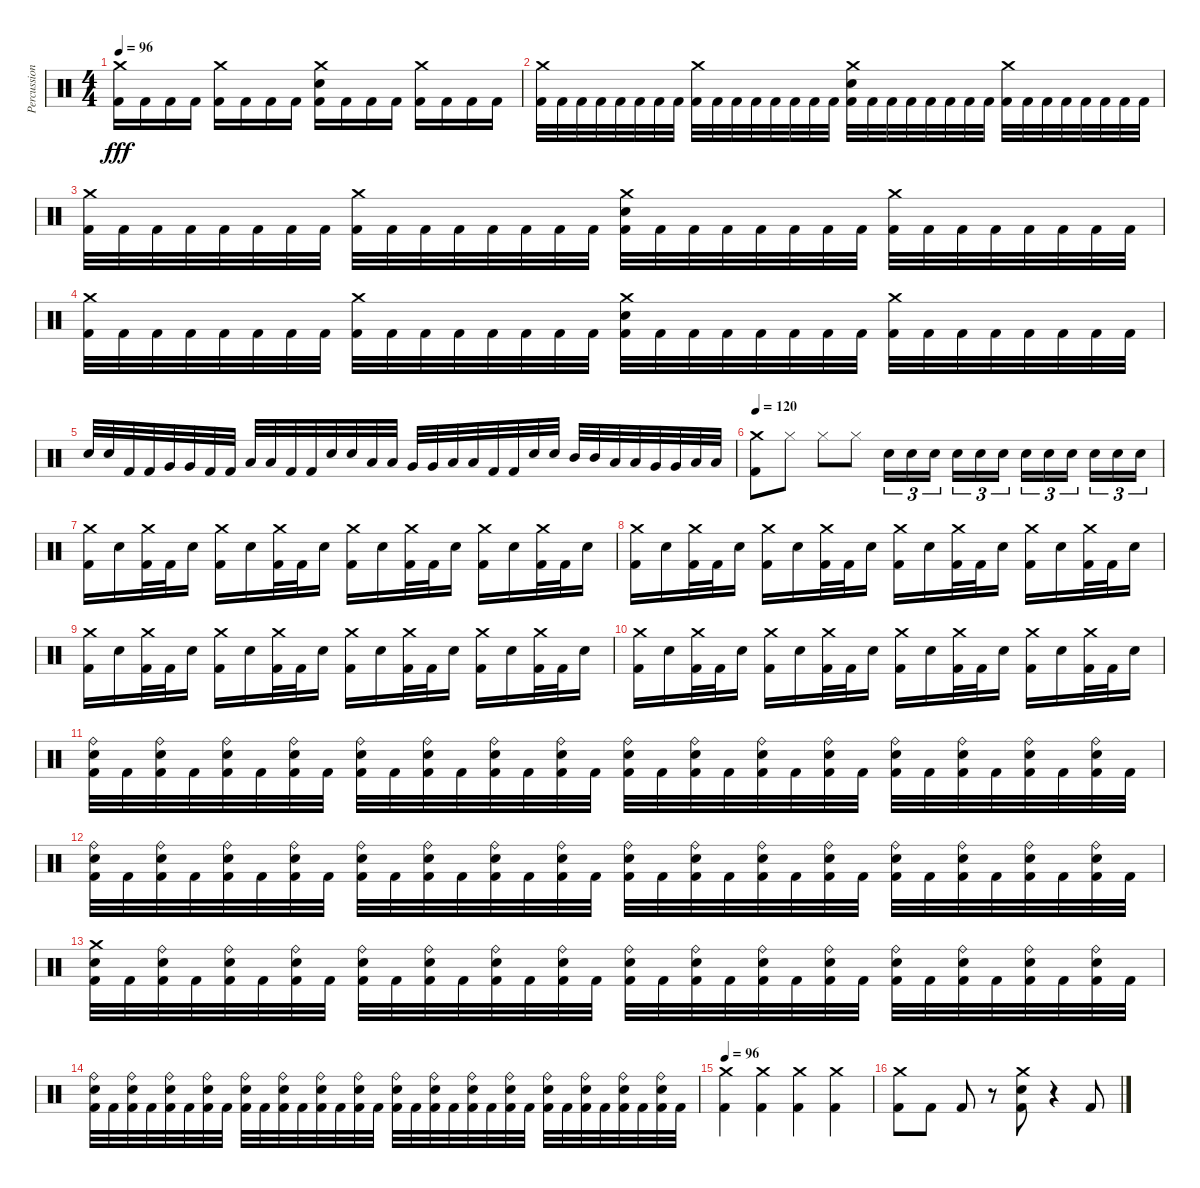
\track ("Percussion" "Percussion") {instrument percussion}
\staff {score}
\articulation defaults
\ts (4 4)
\tempo 96
\clef neutral
\ks c
("Crash medium (hit)" "Kick (hit) 2").16{dy fff} "Kick (hit) 2".16 "Kick (hit) 2".16 "Kick (hit) 2".16 ("Crash medium (hit)" "Kick (hit) 2").16 "Kick (hit) 2".16 "Kick (hit) 2".16 "Kick (hit) 2".16 ("Crash medium (hit)" "Electric Snare (hit)" "Kick (hit) 2").16 "Kick (hit) 2".16 "Kick (hit) 2".16 "Kick (hit) 2".16 ("Crash medium (hit)" "Kick (hit) 2").16 "Kick (hit) 2".16 "Kick (hit) 2".16 "Kick (hit) 2".16 |
("Crash medium (hit)" "Kick (hit) 2").32 "Kick (hit) 2".32 "Kick (hit) 2".32 "Kick (hit) 2".32 "Kick (hit) 2".32 "Kick (hit) 2".32 "Kick (hit) 2".32 "Kick (hit) 2".32 ("Crash medium (hit)" "Kick (hit) 2").32 "Kick (hit) 2".32 "Kick (hit) 2".32 "Kick (hit) 2".32 "Kick (hit) 2".32 "Kick (hit) 2".32 "Kick (hit) 2".32 "Kick (hit) 2".32 ("Crash medium (hit)" "Electric Snare (hit)" "Kick (hit) 2").32 "Kick (hit) 2".32 "Kick (hit) 2".32 "Kick (hit) 2".32 "Kick (hit) 2".32 "Kick (hit) 2".32 "Kick (hit) 2".32 "Kick (hit) 2".32 ("Crash medium (hit)" "Kick (hit) 2").32 "Kick (hit) 2".32 "Kick (hit) 2".32 "Kick (hit) 2".32 "Kick (hit) 2".32 "Kick (hit) 2".32 "Kick (hit) 2".32 "Kick (hit) 2".32 |
("Crash medium (hit)" "Kick (hit) 2").32 "Kick (hit) 2".32 "Kick (hit) 2".32 "Kick (hit) 2".32 "Kick (hit) 2".32 "Kick (hit) 2".32 "Kick (hit) 2".32 "Kick (hit) 2".32 ("Crash medium (hit)" "Kick (hit) 2").32 "Kick (hit) 2".32 "Kick (hit) 2".32 "Kick (hit) 2".32 "Kick (hit) 2".32 "Kick (hit) 2".32 "Kick (hit) 2".32 "Kick (hit) 2".32 ("Crash medium (hit)" "Electric Snare (hit)" "Kick (hit) 2").32 "Kick (hit) 2".32 "Kick (hit) 2".32 "Kick (hit) 2".32 "Kick (hit) 2".32 "Kick (hit) 2".32 "Kick (hit) 2".32 "Kick (hit) 2".32 ("Crash medium (hit)" "Kick (hit) 2").32 "Kick (hit) 2".32 "Kick (hit) 2".32 "Kick (hit) 2".32 "Kick (hit) 2".32 "Kick (hit) 2".32 "Kick (hit) 2".32 "Kick (hit) 2".32 |
("Crash medium (hit)" "Kick (hit) 2").32 "Kick (hit) 2".32 "Kick (hit) 2".32 "Kick (hit) 2".32 "Kick (hit) 2".32 "Kick (hit) 2".32 "Kick (hit) 2".32 "Kick (hit) 2".32 ("Crash medium (hit)" "Kick (hit) 2").32 "Kick (hit) 2".32 "Kick (hit) 2".32 "Kick (hit) 2".32 "Kick (hit) 2".32 "Kick (hit) 2".32 "Kick (hit) 2".32 "Kick (hit) 2".32 ("Crash medium (hit)" "Electric Snare (hit)" "Kick (hit) 2").32 "Kick (hit) 2".32 "Kick (hit) 2".32 "Kick (hit) 2".32 "Kick (hit) 2".32 "Kick (hit) 2".32 "Kick (hit) 2".32 "Kick (hit) 2".32 ("Crash medium (hit)" "Kick (hit) 2").32 "Kick (hit) 2".32 "Kick (hit) 2".32 "Kick (hit) 2".32 "Kick (hit) 2".32 "Kick (hit) 2".32 "Kick (hit) 2".32 "Kick (hit) 2".32 |
"Electric Snare (hit)".32 "Electric Snare (hit)".32 "Kick (hit) 2".32 "Kick (hit) 2".32 "Very Low Tom (hit)".32 "Very Low Tom (hit)".32 "Kick (hit) 2".32 "Kick (hit) 2".32 "Low Floor Tom (hit)".32 "Low Floor Tom (hit)".32 "Kick (hit) 2".32 "Kick (hit) 2".32 "Electric Snare (hit)".32 "Electric Snare (hit)".32 "Low Tom (hit)".32 "Low Tom (hit)".32 "Very Low Tom (hit)".32 "Very Low Tom (hit)".32 "Low Floor Tom (hit)".32 "Low Floor Tom (hit)".32 "Kick (hit) 2".32 "Kick (hit) 2".32 "Electric Snare (hit)".32 "Electric Snare (hit)".32 "Mid Tom (hit)".32 "Mid Tom (hit)".32 "Low Tom (hit)".32 "Low Tom (hit)".32 "Very Low Tom (hit)".32 "Very Low Tom (hit)".32 "Low Floor Tom (hit)".32 "Low Floor Tom (hit)".32 |
\tempo 120
("Crash medium (hit)" "Kick (hit) 2").8 "Hi-Hat (closed)".8 "Hi-Hat (closed)".8 "Hi-Hat (closed)".8 "Electric Snare (hit)".16{tu (3 2)} "Electric Snare (hit)".16{tu (3 2)} "Electric Snare (hit)".16{tu (3 2) beam splitsecondary} "Electric Snare (hit)".16{tu (3 2)} "Electric Snare (hit)".16{tu (3 2)} "Electric Snare (hit)".16{tu (3 2)} "Electric Snare (hit)".16{tu (3 2)} "Electric Snare (hit)".16{tu (3 2)} "Electric Snare (hit)".16{tu (3 2) beam splitsecondary} "Electric Snare (hit)".16{tu (3 2)} "Electric Snare (hit)".16{tu (3 2)} "Electric Snare (hit)".16{tu (3 2)} |
("Crash medium (hit)" "Kick (hit) 2").16 "Electric Snare (hit)".16 ("Crash medium (hit)" "Kick (hit) 2").32 "Kick (hit) 2".32 "Electric Snare (hit)".16 ("Crash medium (hit)" "Kick (hit) 2").16 "Electric Snare (hit)".16 ("Crash medium (hit)" "Kick (hit) 2").32 "Kick (hit) 2".32 "Electric Snare (hit)".16 ("Crash medium (hit)" "Kick (hit) 2").16 "Electric Snare (hit)".16 ("Crash medium (hit)" "Kick (hit) 2").32 "Kick (hit) 2".32 "Electric Snare (hit)".16 ("Crash medium (hit)" "Kick (hit) 2").16 "Electric Snare (hit)".16 ("Crash medium (hit)" "Kick (hit) 2").32 "Kick (hit) 2".32 "Electric Snare (hit)".16 |
("Crash medium (hit)" "Kick (hit) 2").16 "Electric Snare (hit)".16 ("Crash medium (hit)" "Kick (hit) 2").32 "Kick (hit) 2".32 "Electric Snare (hit)".16 ("Crash medium (hit)" "Kick (hit) 2").16 "Electric Snare (hit)".16 ("Crash medium (hit)" "Kick (hit) 2").32 "Kick (hit) 2".32 "Electric Snare (hit)".16 ("Crash medium (hit)" "Kick (hit) 2").16 "Electric Snare (hit)".16 ("Crash medium (hit)" "Kick (hit) 2").32 "Kick (hit) 2".32 "Electric Snare (hit)".16 ("Crash medium (hit)" "Kick (hit) 2").16 "Electric Snare (hit)".16 ("Crash medium (hit)" "Kick (hit) 2").32 "Kick (hit) 2".32 "Electric Snare (hit)".16 |
("Crash medium (hit)" "Kick (hit) 2").16 "Electric Snare (hit)".16 ("Crash medium (hit)" "Kick (hit) 2").32 "Kick (hit) 2".32 "Electric Snare (hit)".16 ("Crash medium (hit)" "Kick (hit) 2").16 "Electric Snare (hit)".16 ("Crash medium (hit)" "Kick (hit) 2").32 "Kick (hit) 2".32 "Electric Snare (hit)".16 ("Crash medium (hit)" "Kick (hit) 2").16 "Electric Snare (hit)".16 ("Crash medium (hit)" "Kick (hit) 2").32 "Kick (hit) 2".32 "Electric Snare (hit)".16 ("Crash medium (hit)" "Kick (hit) 2").16 "Electric Snare (hit)".16 ("Crash medium (hit)" "Kick (hit) 2").32 "Kick (hit) 2".32 "Electric Snare (hit)".16 |
("Crash medium (hit)" "Kick (hit) 2").16 "Electric Snare (hit)".16 ("Crash medium (hit)" "Kick (hit) 2").32 "Kick (hit) 2".32 "Electric Snare (hit)".16 ("Crash medium (hit)" "Kick (hit) 2").16 "Electric Snare (hit)".16 ("Crash medium (hit)" "Kick (hit) 2").32 "Kick (hit) 2".32 "Electric Snare (hit)".16 ("Crash medium (hit)" "Kick (hit) 2").16 "Electric Snare (hit)".16 ("Crash medium (hit)" "Kick (hit) 2").32 "Kick (hit) 2".32 "Electric Snare (hit)".16 ("Crash medium (hit)" "Kick (hit) 2").16 "Electric Snare (hit)".16 ("Crash medium (hit)" "Kick (hit) 2").32 "Kick (hit) 2".32 "Electric Snare (hit)".16 |
("Ride (bell)" "Electric Snare (hit)" "Kick (hit) 2").32 "Kick (hit) 2".32 ("Ride (bell)" "Electric Snare (hit)" "Kick (hit) 2").32 "Kick (hit) 2".32 ("Ride (bell)" "Electric Snare (hit)" "Kick (hit) 2").32 "Kick (hit) 2".32 ("Ride (bell)" "Electric Snare (hit)" "Kick (hit) 2").32 "Kick (hit) 2".32 ("Ride (bell)" "Electric Snare (hit)" "Kick (hit) 2").32 "Kick (hit) 2".32 ("Ride (bell)" "Electric Snare (hit)" "Kick (hit) 2").32 "Kick (hit) 2".32 ("Ride (bell)" "Electric Snare (hit)" "Kick (hit) 2").32 "Kick (hit) 2".32 ("Ride (bell)" "Electric Snare (hit)" "Kick (hit) 2").32 "Kick (hit) 2".32 ("Ride (bell)" "Electric Snare (hit)" "Kick (hit) 2").32 "Kick (hit) 2".32 ("Ride (bell)" "Electric Snare (hit)" "Kick (hit) 2").32 "Kick (hit) 2".32 ("Ride (bell)" "Electric Snare (hit)" "Kick (hit) 2").32 "Kick (hit) 2".32 ("Ride (bell)" "Electric Snare (hit)" "Kick (hit) 2").32 "Kick (hit) 2".32 ("Ride (bell)" "Electric Snare (hit)" "Kick (hit) 2").32 "Kick (hit) 2".32 ("Ride (bell)" "Electric Snare (hit)" "Kick (hit) 2").32 "Kick (hit) 2".32 ("Ride (bell)" "Electric Snare (hit)" "Kick (hit) 2").32 "Kick (hit) 2".32 ("Ride (bell)" "Electric Snare (hit)" "Kick (hit) 2").32 "Kick (hit) 2".32 |
("Ride (bell)" "Electric Snare (hit)" "Kick (hit) 2").32 "Kick (hit) 2".32 ("Ride (bell)" "Electric Snare (hit)" "Kick (hit) 2").32 "Kick (hit) 2".32 ("Ride (bell)" "Electric Snare (hit)" "Kick (hit) 2").32 "Kick (hit) 2".32 ("Ride (bell)" "Electric Snare (hit)" "Kick (hit) 2").32 "Kick (hit) 2".32 ("Ride (bell)" "Electric Snare (hit)" "Kick (hit) 2").32 "Kick (hit) 2".32 ("Ride (bell)" "Electric Snare (hit)" "Kick (hit) 2").32 "Kick (hit) 2".32 ("Ride (bell)" "Electric Snare (hit)" "Kick (hit) 2").32 "Kick (hit) 2".32 ("Ride (bell)" "Electric Snare (hit)" "Kick (hit) 2").32 "Kick (hit) 2".32 ("Ride (bell)" "Electric Snare (hit)" "Kick (hit) 2").32 "Kick (hit) 2".32 ("Ride (bell)" "Electric Snare (hit)" "Kick (hit) 2").32 "Kick (hit) 2".32 ("Ride (bell)" "Electric Snare (hit)" "Kick (hit) 2").32 "Kick (hit) 2".32 ("Ride (bell)" "Electric Snare (hit)" "Kick (hit) 2").32 "Kick (hit) 2".32 ("Ride (bell)" "Electric Snare (hit)" "Kick (hit) 2").32 "Kick (hit) 2".32 ("Ride (bell)" "Electric Snare (hit)" "Kick (hit) 2").32 "Kick (hit) 2".32 ("Ride (bell)" "Electric Snare (hit)" "Kick (hit) 2").32 "Kick (hit) 2".32 ("Ride (bell)" "Electric Snare (hit)" "Kick (hit) 2").32 "Kick (hit) 2".32 |
("Crash medium (hit)" "Electric Snare (hit)" "Kick (hit) 2").32 "Kick (hit) 2".32 ("Ride (bell)" "Electric Snare (hit)" "Kick (hit) 2").32 "Kick (hit) 2".32 ("Ride (bell)" "Electric Snare (hit)" "Kick (hit) 2").32 "Kick (hit) 2".32 ("Ride (bell)" "Electric Snare (hit)" "Kick (hit) 2").32 "Kick (hit) 2".32 ("Ride (bell)" "Electric Snare (hit)" "Kick (hit) 2").32 "Kick (hit) 2".32 ("Ride (bell)" "Electric Snare (hit)" "Kick (hit) 2").32 "Kick (hit) 2".32 ("Ride (bell)" "Electric Snare (hit)" "Kick (hit) 2").32 "Kick (hit) 2".32 ("Ride (bell)" "Electric Snare (hit)" "Kick (hit) 2").32 "Kick (hit) 2".32 ("Ride (bell)" "Electric Snare (hit)" "Kick (hit) 2").32 "Kick (hit) 2".32 ("Ride (bell)" "Electric Snare (hit)" "Kick (hit) 2").32 "Kick (hit) 2".32 ("Ride (bell)" "Electric Snare (hit)" "Kick (hit) 2").32 "Kick (hit) 2".32 ("Ride (bell)" "Electric Snare (hit)" "Kick (hit) 2").32 "Kick (hit) 2".32 ("Ride (bell)" "Electric Snare (hit)" "Kick (hit) 2").32 "Kick (hit) 2".32 ("Ride (bell)" "Electric Snare (hit)" "Kick (hit) 2").32 "Kick (hit) 2".32 ("Ride (bell)" "Electric Snare (hit)" "Kick (hit) 2").32 "Kick (hit) 2".32 ("Ride (bell)" "Electric Snare (hit)" "Kick (hit) 2").32 "Kick (hit) 2".32 |
("Ride (bell)" "Electric Snare (hit)" "Kick (hit) 2").32 "Kick (hit) 2".32 ("Ride (bell)" "Electric Snare (hit)" "Kick (hit) 2").32 "Kick (hit) 2".32 ("Ride (bell)" "Electric Snare (hit)" "Kick (hit) 2").32 "Kick (hit) 2".32 ("Ride (bell)" "Electric Snare (hit)" "Kick (hit) 2").32 "Kick (hit) 2".32 ("Ride (bell)" "Electric Snare (hit)" "Kick (hit) 2").32 "Kick (hit) 2".32 ("Ride (bell)" "Electric Snare (hit)" "Kick (hit) 2").32 "Kick (hit) 2".32 ("Ride (bell)" "Electric Snare (hit)" "Kick (hit) 2").32 "Kick (hit) 2".32 ("Ride (bell)" "Electric Snare (hit)" "Kick (hit) 2").32 "Kick (hit) 2".32 ("Ride (bell)" "Electric Snare (hit)" "Kick (hit) 2").32 "Kick (hit) 2".32 ("Ride (bell)" "Electric Snare (hit)" "Kick (hit) 2").32 "Kick (hit) 2".32 ("Ride (bell)" "Electric Snare (hit)" "Kick (hit) 2").32 "Kick (hit) 2".32 ("Ride (bell)" "Electric Snare (hit)" "Kick (hit) 2").32 "Kick (hit) 2".32 ("Ride (bell)" "Electric Snare (hit)" "Kick (hit) 2").32 "Kick (hit) 2".32 ("Ride (bell)" "Electric Snare (hit)" "Kick (hit) 2").32 "Kick (hit) 2".32 ("Ride (bell)" "Electric Snare (hit)" "Kick (hit) 2").32 "Kick (hit) 2".32 ("Ride (bell)" "Electric Snare (hit)" "Kick (hit) 2").32 "Kick (hit) 2".32 |
\tempo 96
("Crash medium (hit)" "Kick (hit) 2").4 ("Crash medium (hit)" "Kick (hit) 2").4 ("Crash medium (hit)" "Kick (hit) 2").4 ("Crash medium (hit)" "Kick (hit) 2").4 |
("Crash medium (hit)" "Kick (hit) 2").8 "Kick (hit) 2".8 "Kick (hit) 2".8 r.8 ("Crash medium (hit)" "Electric Snare (hit)" "Kick (hit) 2").8 r.4 "Kick (hit) 2".8
